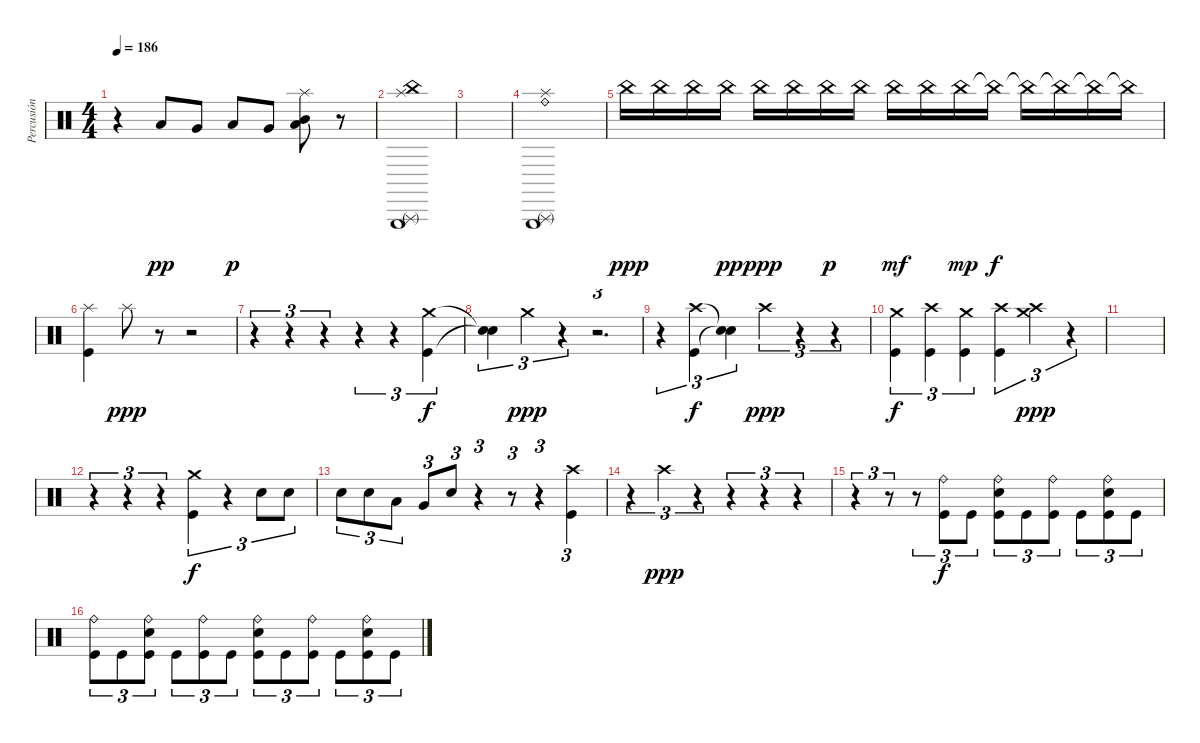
\track ("Percusión" "Percusión") {instrument percussion}
\staff {score}
\articulation defaults
\ts (4 4)
\tempo 186
\clef neutral
\ks c
r.4{dy p} "Low Tom (hit)".8{dy pp} "Very Low Tom (hit)".8 "Low Tom (hit)".8{dy p} "Very Low Tom (hit)".8 ("Splash (hit)" "Low Floor Tom (hit)" "Mid Tom (hit)").8 r.8 |
("China (hit)" "Splash (hit)" "Triangle (rnute)" "Triangle (hit)").1 |
|
("Ride (bell)" "Splash (hit)" "Triangle (rnute)" "Triangle (hit)").1 |
"China (hit)".16{dy ppp} "China (hit)".16 "China (hit)".16 "China (hit)".16{dy pp} "China (hit)".16{dy ppp} "China (hit)".16 "China (hit)".16{dy p} "China (hit)".16 "China (hit)".16{dy mf} "China (hit)".16 "China (hit)".16{dy mp} "China (hit)"{t}.16{dy f} "China (hit)"{t}.16 "China (hit)"{t}.16 "China (hit)"{t}.16 "China (hit)"{t}.16 |
("Splash (hit)" "Kick (hit)").4 "Splash (hit)".8{dy ppp} r.8 r.2 |
r.4{tu (3 2)} r.4{tu (3 2)} r.4{tu (3 2)} r.4{tu (3 2)} r.4{tu (3 2)} ("Crash medium (hit)" "Kick (hit)").4{tu (3 2) dy f} |
("Snare (hit)"{t} "Snare (hit)"{t}).4{tu (3 2)} "Crash medium (hit)".4{tu (3 2) dy ppp} r.4{tu (3 2)} r.2{d tu (3 2)} |
r.4{tu (3 2)} ("Crash high (hit)" "Kick (hit)").4{tu (3 2) dy f} ("Snare (hit)"{t} "Snare (hit)"{t}).4{tu (3 2)} "Crash high (hit)".4{tu (3 2) dy ppp} r.4{tu (3 2)} r.4{tu (3 2)} |
("Crash medium (hit)" "Kick (hit)").4{tu (3 2) dy f} ("Crash high (hit)" "Kick (hit)").4{tu (3 2)} ("Crash medium (hit)" "Kick (hit)").4{tu (3 2)} ("Crash high (hit)" "Kick (hit)").4{tu (3 2)} ("Crash high (hit)" "Crash medium (hit)").4{tu (3 2) dy ppp} r.4{tu (3 2)} |
|
r.4{tu (3 2)} r.4{tu (3 2)} r.4{tu (3 2)} ("Crash medium (hit)" "Kick (hit)").4{tu (3 2) dy f} r.4{tu (3 2)} "Snare (hit) 2".8{tu (3 2)} "Snare (hit) 2".8{tu (3 2)} |
"Snare (hit) 2".8{tu (3 2)} "Snare (hit) 2".8{tu (3 2)} "Low Tom (hit)".8{tu (3 2)} "Very Low Tom (hit)".8{tu (3 2)} "Snare (hit) 2".8{tu (3 2)} r.4{tu (3 2)} r.8{tu (3 2)} r.4{tu (3 2)} ("Crash high (hit)" "Kick (hit)").4{tu (3 2)} |
r.4{tu (3 2)} "Crash high (hit)".4{tu (3 2) dy ppp} r.4{tu (3 2)} r.4{tu (3 2)} r.4{tu (3 2)} r.4{tu (3 2)} |
r.4{tu (3 2)} r.8{tu (3 2)} r.8{tu (3 2)} ("Ride (bell)" "Kick (hit)").8{tu (3 2) dy f} "Kick (hit)".8{tu (3 2)} ("Ride (bell)" "Snare (hit) 2" "Kick (hit)").8{tu (3 2)} "Kick (hit)".8{tu (3 2)} ("Ride (bell)" "Kick (hit)").8{tu (3 2)} "Kick (hit)".8{tu (3 2)} ("Ride (bell)" "Snare (hit) 2" "Kick (hit)").8{tu (3 2)} "Kick (hit)".8{tu (3 2)} |
("Ride (bell)" "Kick (hit)").8{tu (3 2)} "Kick (hit)".8{tu (3 2)} ("Ride (bell)" "Snare (hit) 2" "Kick (hit)").8{tu (3 2)} "Kick (hit)".8{tu (3 2)} ("Ride (bell)" "Kick (hit)").8{tu (3 2)} "Kick (hit)".8{tu (3 2)} ("Ride (bell)" "Snare (hit) 2" "Kick (hit)").8{tu (3 2)} "Kick (hit)".8{tu (3 2)} ("Ride (bell)" "Kick (hit)").8{tu (3 2)} "Kick (hit)".8{tu (3 2)} ("Ride (bell)" "Snare (hit) 2" "Kick (hit)").8{tu (3 2)} "Kick (hit)".8{tu (3 2)}
